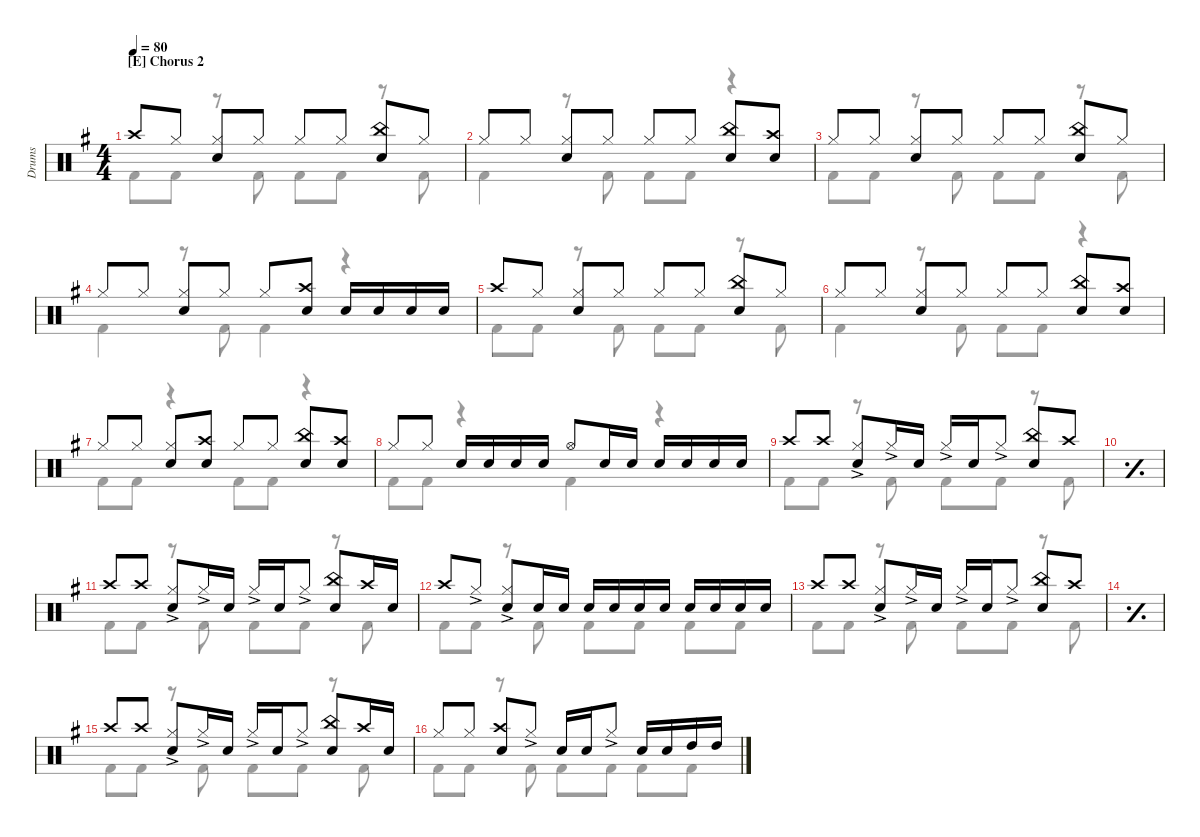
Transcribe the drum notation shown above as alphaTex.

\hideDynamics
\bracketExtendMode nobrackets
\otherSystemsTrackNameOrientation horizontal
\track ("Drums" "Drums") {defaultSystemsLayout 4 multiBarRest instrument percussion}
\staff {score}
\articulation defaults
\voice
\ts (4 4)
\section ("E" "Chorus 2")
\tempo 80
\clef neutral
\ks g "Crash high (hit)"{acc forcenatural}.8{dy f beam Up} "Hi-Hat (closed)"{acc forcenatural}.8{beam Up}
("Hi-Hat (closed)"{acc forcenatural} "Snare (hit) 2"{acc forcenatural}).8{beam Up} "Hi-Hat (closed)"{acc forcenatural}.8{beam Up} "Hi-Hat (closed)"{acc forcenatural}.8{beam Up} "Hi-Hat (closed)"{acc forcenatural}.8{beam Up} ("China (hit)"{acc forcenatural} "Snare (hit) 2"{acc forcenatural}).8{beam Up} "Hi-Hat (closed)"{acc forcenatural}.8{beam Up} |
"Hi-Hat (closed)"{acc forcenatural}.8{beam Up} "Hi-Hat (closed)"{acc forcenatural}.8{beam Up} ("Hi-Hat (closed)"{acc forcenatural} "Snare (hit) 2"{acc forcenatural}).8{beam Up} "Hi-Hat (closed)"{acc forcenatural}.8{beam Up} "Hi-Hat (closed)"{acc forcenatural}.8{beam Up} "Hi-Hat (closed)"{acc forcenatural}.8{beam Up} ("China (hit)"{acc forcenatural} "Snare (hit) 2"{acc forcenatural}).8{beam Up} ("Snare (hit) 2"{acc forcenatural} "Crash high (hit)"{acc forcenatural}).8{beam Up} |
"Hi-Hat (closed)"{acc forcenatural}.8{beam Up} "Hi-Hat (closed)"{acc forcenatural}.8{beam Up} ("Hi-Hat (closed)"{acc forcenatural} "Snare (hit) 2"{acc forcenatural}).8{beam Up} "Hi-Hat (closed)"{acc forcenatural}.8{beam Up} "Hi-Hat (closed)"{acc forcenatural}.8{beam Up} "Hi-Hat (closed)"{acc forcenatural}.8{beam Up} ("China (hit)"{acc forcenatural} "Snare (hit) 2"{acc forcenatural}).8{beam Up} "Hi-Hat (closed)"{acc forcenatural}.8{beam Up} |
"Hi-Hat (closed)"{acc forcenatural}.8{beam Up} "Hi-Hat (closed)"{acc forcenatural}.8{beam Up} ("Hi-Hat (closed)"{acc forcenatural} "Snare (hit) 2"{acc forcenatural}).8{beam Up} "Hi-Hat (closed)"{acc forcenatural}.8{beam Up} "Hi-Hat (closed)"{acc forcenatural}.8{beam Up} ("Snare (hit) 2"{acc forcenatural} "Crash high (hit)"{acc forcenatural}).8{beam Up} "Snare (hit) 2"{acc forcenatural}.16{beam Up} "Snare (hit) 2"{acc forcenatural}.16{beam Up} "Snare (hit) 2"{acc forcenatural}.16{beam Up} "Snare (hit) 2"{acc forcenatural}.16{beam Up} |
"Crash high (hit)"{acc forcenatural}.8{beam Up} "Hi-Hat (closed)"{acc forcenatural}.8{beam Up} ("Hi-Hat (closed)"{acc forcenatural} "Snare (hit) 2"{acc forcenatural}).8{beam Up} "Hi-Hat (closed)"{acc forcenatural}.8{beam Up} "Hi-Hat (closed)"{acc forcenatural}.8{beam Up} "Hi-Hat (closed)"{acc forcenatural}.8{beam Up} ("China (hit)"{acc forcenatural} "Snare (hit) 2"{acc forcenatural}).8{beam Up} "Hi-Hat (closed)"{acc forcenatural}.8{beam Up} |
"Hi-Hat (closed)"{acc forcenatural}.8{beam Up} "Hi-Hat (closed)"{acc forcenatural}.8{beam Up} ("Hi-Hat (closed)"{acc forcenatural} "Snare (hit) 2"{acc forcenatural}).8{beam Up} "Hi-Hat (closed)"{acc forcenatural}.8{beam Up} "Hi-Hat (closed)"{acc forcenatural}.8{beam Up} "Hi-Hat (closed)"{acc forcenatural}.8{beam Up} ("China (hit)"{acc forcenatural} "Snare (hit) 2"{acc forcenatural}).8{beam Up} ("Snare (hit) 2"{acc forcenatural} "Crash high (hit)"{acc forcenatural}).8{beam Up} |
"Hi-Hat (closed)"{acc forcenatural}.8{beam Up} "Hi-Hat (closed)"{acc forcenatural}.8{beam Up} ("Hi-Hat (closed)"{acc forcenatural} "Snare (hit) 2"{acc forcenatural}).8{beam Up} ("Snare (hit) 2"{acc forcenatural} "Crash high (hit)"{acc forcenatural}).8{beam Up} "Hi-Hat (closed)"{acc forcenatural}.8{beam Up} "Hi-Hat (closed)"{acc forcenatural}.8{beam Up} ("China (hit)"{acc forcenatural} "Snare (hit) 2"{acc forcenatural}).8{beam Up} ("Snare (hit) 2"{acc forcenatural} "Crash high (hit)"{acc forcenatural}).8{beam Up} |
"Hi-Hat (closed)"{acc forcenatural}.8{beam Up} "Hi-Hat (closed)"{acc forcenatural}.8{beam Up} "Snare (hit) 2"{acc forcenatural}.16{beam Up} "Snare (hit) 2"{acc forcenatural}.16{beam Up} "Snare (hit) 2"{acc forcenatural}.16{beam Up} "Snare (hit) 2"{acc forcenatural}.16{beam Up} "Hi-Hat (open)"{acc forcenatural}.8{beam Up} "Snare (hit) 2"{acc forcenatural}.16{beam Up} "Snare (hit) 2"{acc forcenatural}.16{beam Up} "Snare (hit) 2"{acc forcenatural}.16{beam Up} "Snare (hit) 2"{acc forcenatural}.16{beam Up} "Snare (hit) 2"{acc forcenatural}.16{dy mf beam Up} "Snare (hit) 2"{acc forcenatural}.16{dy f beam Up} |
"Crash high (hit)"{acc forcenatural}.8{beam Up} "Crash high (hit)"{acc forcenatural}.8{beam Up} ("Hi-Hat (closed)"{ac acc forcenatural} "Snare (hit) 2"{acc forcenatural}).8{beam Up} "Hi-Hat (closed)"{ac acc forcenatural}.16{beam Up} "Snare (hit) 2"{acc forcenatural}.16{beam Up} "Hi-Hat (closed)"{ac acc forcenatural}.16{beam Up} "Snare (hit) 2"{acc forcenatural}.16{beam Up} "Hi-Hat (closed)"{ac acc forcenatural}.8{beam Up} ("China (hit)"{acc forcenatural} "Snare (hit) 2"{acc forcenatural}).8{beam Up} "Crash high (hit)"{acc forcenatural}.8{beam Up} |
\simile simple
|
\simile none "Crash high (hit)"{acc forcenatural}.8{beam Up} "Crash high (hit)"{acc forcenatural}.8{beam Up}
("Hi-Hat (closed)"{ac acc forcenatural} "Snare (hit) 2"{acc forcenatural}).8{beam Up} "Hi-Hat (closed)"{ac acc forcenatural}.16{beam Up} "Snare (hit) 2"{acc forcenatural}.16{beam Up} "Hi-Hat (closed)"{ac acc forcenatural}.16{beam Up} "Snare (hit) 2"{acc forcenatural}.16{beam Up} "Hi-Hat (closed)"{ac acc forcenatural}.8{beam Up} ("China (hit)"{acc forcenatural} "Snare (hit) 2"{acc forcenatural}).8{beam Up} "Crash high (hit)"{acc forcenatural}.16{beam Up} "Snare (hit) 2"{acc forcenatural}.16{beam Up} |
"Crash high (hit)"{acc forcenatural}.8{beam Up} "Hi-Hat (closed)"{ac acc forcenatural}.8{beam Up} ("Snare (hit) 2"{acc forcenatural} "Hi-Hat (closed)"{ac acc forcenatural}).8{beam Up} "Snare (hit) 2"{acc forcenatural}.16{beam Up} "Snare (hit) 2"{acc forcenatural}.16{beam Up} "Snare (hit) 2"{acc forcenatural}.16{beam Up} "Snare (hit) 2"{acc forcenatural}.16{beam Up} "Snare (hit) 2"{acc forcenatural}.16{beam Up} "Snare (hit) 2"{acc forcenatural}.16{beam Up} "Snare (hit) 2"{acc forcenatural}.16{beam Up} "Snare (hit) 2"{acc forcenatural}.16{beam Up} "Snare (hit) 2"{acc forcenatural}.16{dy mf beam Up} "Snare (hit) 2"{acc forcenatural}.16{dy f beam Up} |
"Crash high (hit)"{acc forcenatural}.8{beam Up} "Crash high (hit)"{acc forcenatural}.8{beam Up} ("Hi-Hat (closed)"{ac acc forcenatural} "Snare (hit) 2"{acc forcenatural}).8{beam Up} "Hi-Hat (closed)"{ac acc forcenatural}.16{beam Up} "Snare (hit) 2"{acc forcenatural}.16{beam Up} "Hi-Hat (closed)"{ac acc forcenatural}.16{beam Up} "Snare (hit) 2"{acc forcenatural}.16{beam Up} "Hi-Hat (closed)"{ac acc forcenatural}.8{beam Up} ("China (hit)"{acc forcenatural} "Snare (hit) 2"{acc forcenatural}).8{beam Up} "Crash high (hit)"{acc forcenatural}.8{beam Up} |
\simile simple
|
\simile none "Crash high (hit)"{acc forcenatural}.8{beam Up} "Crash high (hit)"{acc forcenatural}.8{beam Up}
("Hi-Hat (closed)"{ac acc forcenatural} "Snare (hit) 2"{acc forcenatural}).8{beam Up} "Hi-Hat (closed)"{ac acc forcenatural}.16{beam Up} "Snare (hit) 2"{acc forcenatural}.16{beam Up} "Hi-Hat (closed)"{ac acc forcenatural}.16{beam Up} "Snare (hit) 2"{acc forcenatural}.16{beam Up} "Hi-Hat (closed)"{ac acc forcenatural}.8{beam Up} ("China (hit)"{acc forcenatural} "Snare (hit) 2"{acc forcenatural}).8{beam Up} "Crash high (hit)"{acc forcenatural}.16{beam Up} "Snare (hit) 2"{acc forcenatural}.16{beam Up} |
"Hi-Hat (closed)"{acc forcenatural}.8{beam Up} "Hi-Hat (closed)"{acc forcenatural}.8{beam Up} ("Snare (hit) 2"{acc forcenatural} "Crash high (hit)"{acc forcenatural}).8{beam Up} "Hi-Hat (closed)"{ac acc forcenatural}.8{beam Up} "Snare (hit) 2"{acc forcenatural}.16{beam Up} "Snare (hit) 2"{acc forcenatural}.16{beam Up} "Hi-Hat (closed)"{ac acc forcenatural}.8{beam Up} "Snare (hit) 2"{acc forcenatural}.16{beam Up} "Snare (hit) 2"{acc forcenatural}.16{beam Up} "High Tom (hit)"{acc forcenatural}.16{beam Up} "High Tom (hit)"{acc forcenatural}.16{beam Up}
\voice
\clef neutral
\ottava regular
\simile none
\ks g "Kick (hit) 2"{acc forcenatural}.8{dy mf beam Down} "Kick (hit) 2"{acc forcenatural}.8{beam Down}
r.8{beam Down} "Kick (hit) 2"{acc forcenatural}.8{beam Down} "Kick (hit) 2"{acc forcenatural}.8{beam Down} "Kick (hit) 2"{acc forcenatural}.8{beam Down} r.8{beam Down} "Kick (hit) 2"{acc forcenatural}.8{beam Down} |
"Kick (hit) 2"{acc forcenatural}.4{beam Down} r.8{beam Down} "Kick (hit) 2"{acc forcenatural}.8{beam Down} "Kick (hit) 2"{acc forcenatural}.8{beam Down} "Kick (hit) 2"{acc forcenatural}.8{beam Down} r.4{beam Down} |
"Kick (hit) 2"{acc forcenatural}.8{beam Down} "Kick (hit) 2"{acc forcenatural}.8{beam Down} r.8{beam Down} "Kick (hit) 2"{acc forcenatural}.8{beam Down} "Kick (hit) 2"{acc forcenatural}.8{beam Down} "Kick (hit) 2"{acc forcenatural}.8{beam Down} r.8{beam Down} "Kick (hit) 2"{acc forcenatural}.8{beam Down} |
"Kick (hit) 2"{acc forcenatural}.4{beam Down} r.8{beam Down} "Kick (hit) 2"{acc forcenatural}.8{beam Down} "Kick (hit) 2"{acc forcenatural}.4{beam Down} r.4{beam Down} |
"Kick (hit) 2"{acc forcenatural}.8{beam Down} "Kick (hit) 2"{acc forcenatural}.8{beam Down} r.8{beam Down} "Kick (hit) 2"{acc forcenatural}.8{beam Down} "Kick (hit) 2"{acc forcenatural}.8{beam Down} "Kick (hit) 2"{acc forcenatural}.8{beam Down} r.8{beam Down} "Kick (hit) 2"{acc forcenatural}.8{beam Down} |
"Kick (hit) 2"{acc forcenatural}.4{beam Down} r.8{beam Down} "Kick (hit) 2"{acc forcenatural}.8{beam Down} "Kick (hit) 2"{acc forcenatural}.8{beam Down} "Kick (hit) 2"{acc forcenatural}.8{beam Down} r.4{beam Down} |
"Kick (hit) 2"{acc forcenatural}.8{beam Down} "Kick (hit) 2"{acc forcenatural}.8{beam Down} r.4{beam Down} "Kick (hit) 2"{acc forcenatural}.8{beam Down} "Kick (hit) 2"{acc forcenatural}.8{beam Down} r.4{beam Down} |
"Kick (hit) 2"{acc forcenatural}.8{beam Down} "Kick (hit) 2"{acc forcenatural}.8{beam Down} r.4{beam Down} "Kick (hit) 2"{acc forcenatural}.4{beam Down} r.4{beam Down} |
"Kick (hit) 2"{acc forcenatural}.8{beam Down} "Kick (hit) 2"{acc forcenatural}.8{beam Down} r.8{beam Down} "Kick (hit) 2"{acc forcenatural}.8{beam Down} "Kick (hit) 2"{acc forcenatural}.8{beam Down} "Kick (hit) 2"{acc forcenatural}.8{beam Down} r.8{beam Down} "Kick (hit) 2"{acc forcenatural}.8{beam Down} |
\simile simple
|
\simile none "Kick (hit) 2"{acc forcenatural}.8{beam Down} "Kick (hit) 2"{acc forcenatural}.8{beam Down}
r.8{beam Down} "Kick (hit) 2"{acc forcenatural}.8{beam Down} "Kick (hit) 2"{acc forcenatural}.8{beam Down} "Kick (hit) 2"{acc forcenatural}.8{beam Down} r.8{beam Down} "Kick (hit) 2"{acc forcenatural}.8{beam Down} |
"Kick (hit) 2"{acc forcenatural}.8{beam Down} "Kick (hit) 2"{acc forcenatural}.8{beam Down} r.8{beam Down} "Kick (hit) 2"{acc forcenatural}.8{beam Down} "Kick (hit) 2"{acc forcenatural}.8{beam Down} "Kick (hit) 2"{acc forcenatural}.8{beam Down} "Kick (hit) 2"{acc forcenatural}.8{beam Down} "Kick (hit) 2"{acc forcenatural}.8{beam Down} |
"Kick (hit) 2"{acc forcenatural}.8{beam Down} "Kick (hit) 2"{acc forcenatural}.8{beam Down} r.8{beam Down} "Kick (hit) 2"{acc forcenatural}.8{beam Down} "Kick (hit) 2"{acc forcenatural}.8{beam Down} "Kick (hit) 2"{acc forcenatural}.8{beam Down} r.8{beam Down} "Kick (hit) 2"{acc forcenatural}.8{beam Down} |
\simile simple
|
\simile none "Kick (hit) 2"{acc forcenatural}.8{beam Down} "Kick (hit) 2"{acc forcenatural}.8{beam Down}
r.8{beam Down} "Kick (hit) 2"{acc forcenatural}.8{beam Down} "Kick (hit) 2"{acc forcenatural}.8{beam Down} "Kick (hit) 2"{acc forcenatural}.8{beam Down} r.8{beam Down} "Kick (hit) 2"{acc forcenatural}.8{beam Down} |
"Kick (hit) 2"{acc forcenatural}.8{beam Down} "Kick (hit) 2"{acc forcenatural}.8{beam Down} r.8{beam Down} "Kick (hit) 2"{acc forcenatural}.8{beam Down} "Kick (hit) 2"{acc forcenatural}.8{beam Down} "Kick (hit) 2"{acc forcenatural}.8{beam Down} "Kick (hit) 2"{acc forcenatural}.8{beam Down} "Kick (hit) 2"{acc forcenatural}.8{beam Down}
